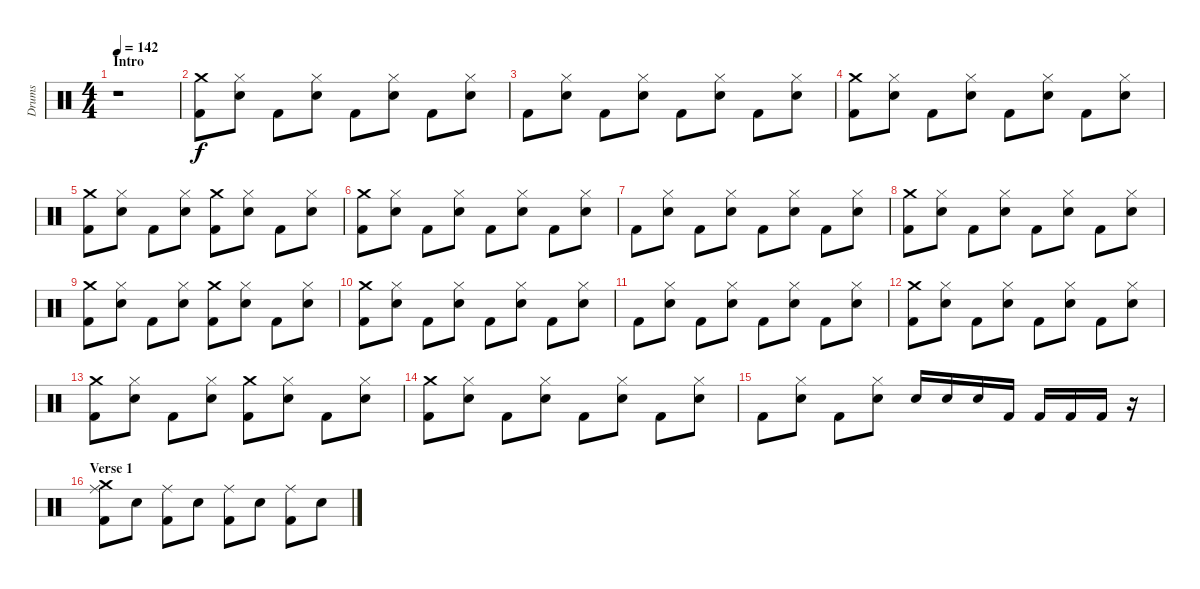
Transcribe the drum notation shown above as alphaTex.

\track ("Drums" "Drums") {instrument percussion}
\staff {score}
\articulation defaults
\ts (4 4)
\section ("" "Intro")
\tempo 142
\clef neutral
\ks c
r.1{dy f} |
("Kick (hit) 2" "Crash medium (hit)").8 ("Snare (hit) 2" "Hi-Hat (closed)").8 "Kick (hit) 2".8 ("Snare (hit) 2" "Hi-Hat (closed)").8 "Kick (hit) 2".8 ("Snare (hit) 2" "Hi-Hat (closed)").8 "Kick (hit) 2".8 ("Snare (hit) 2" "Hi-Hat (closed)").8 |
"Kick (hit) 2".8 ("Snare (hit) 2" "Hi-Hat (closed)").8 "Kick (hit) 2".8 ("Snare (hit) 2" "Hi-Hat (closed)").8 "Kick (hit) 2".8 ("Snare (hit) 2" "Hi-Hat (closed)").8 "Kick (hit) 2".8 ("Snare (hit) 2" "Hi-Hat (closed)").8 |
("Kick (hit) 2" "Crash medium (hit)").8 ("Snare (hit) 2" "Hi-Hat (closed)").8 "Kick (hit) 2".8 ("Snare (hit) 2" "Hi-Hat (closed)").8 "Kick (hit) 2".8 ("Snare (hit) 2" "Hi-Hat (closed)").8 "Kick (hit) 2".8 ("Snare (hit) 2" "Hi-Hat (closed)").8 |
("Kick (hit) 2" "Crash medium (hit)").8 ("Snare (hit) 2" "Hi-Hat (closed)").8 "Kick (hit) 2".8 ("Snare (hit) 2" "Hi-Hat (closed)").8 ("Kick (hit) 2" "Crash medium (hit)").8 ("Snare (hit) 2" "Hi-Hat (closed)").8 "Kick (hit) 2".8 ("Snare (hit) 2" "Hi-Hat (closed)").8 |
("Kick (hit) 2" "Crash medium (hit)").8 ("Snare (hit) 2" "Hi-Hat (closed)").8 "Kick (hit) 2".8 ("Snare (hit) 2" "Hi-Hat (closed)").8 "Kick (hit) 2".8 ("Snare (hit) 2" "Hi-Hat (closed)").8 "Kick (hit) 2".8 ("Snare (hit) 2" "Hi-Hat (closed)").8 |
"Kick (hit) 2".8 ("Snare (hit) 2" "Hi-Hat (closed)").8 "Kick (hit) 2".8 ("Snare (hit) 2" "Hi-Hat (closed)").8 "Kick (hit) 2".8 ("Snare (hit) 2" "Hi-Hat (closed)").8 "Kick (hit) 2".8 ("Snare (hit) 2" "Hi-Hat (closed)").8 |
("Kick (hit) 2" "Crash medium (hit)").8 ("Snare (hit) 2" "Hi-Hat (closed)").8 "Kick (hit) 2".8 ("Snare (hit) 2" "Hi-Hat (closed)").8 "Kick (hit) 2".8 ("Snare (hit) 2" "Hi-Hat (closed)").8 "Kick (hit) 2".8 ("Snare (hit) 2" "Hi-Hat (closed)").8 |
("Kick (hit) 2" "Crash medium (hit)").8 ("Snare (hit) 2" "Hi-Hat (closed)").8 "Kick (hit) 2".8 ("Snare (hit) 2" "Hi-Hat (closed)").8 ("Kick (hit) 2" "Crash medium (hit)").8 ("Snare (hit) 2" "Hi-Hat (closed)").8 "Kick (hit) 2".8 ("Snare (hit) 2" "Hi-Hat (closed)").8 |
("Kick (hit) 2" "Crash medium (hit)").8 ("Snare (hit) 2" "Hi-Hat (closed)").8 "Kick (hit) 2".8 ("Snare (hit) 2" "Hi-Hat (closed)").8 "Kick (hit) 2".8 ("Snare (hit) 2" "Hi-Hat (closed)").8 "Kick (hit) 2".8 ("Snare (hit) 2" "Hi-Hat (closed)").8 |
"Kick (hit) 2".8 ("Snare (hit) 2" "Hi-Hat (closed)").8 "Kick (hit) 2".8 ("Snare (hit) 2" "Hi-Hat (closed)").8 "Kick (hit) 2".8 ("Snare (hit) 2" "Hi-Hat (closed)").8 "Kick (hit) 2".8 ("Snare (hit) 2" "Hi-Hat (closed)").8 |
("Kick (hit) 2" "Crash medium (hit)").8 ("Snare (hit) 2" "Hi-Hat (closed)").8 "Kick (hit) 2".8 ("Snare (hit) 2" "Hi-Hat (closed)").8 "Kick (hit) 2".8 ("Snare (hit) 2" "Hi-Hat (closed)").8 "Kick (hit) 2".8 ("Snare (hit) 2" "Hi-Hat (closed)").8 |
("Kick (hit) 2" "Crash medium (hit)").8 ("Snare (hit) 2" "Hi-Hat (closed)").8 "Kick (hit) 2".8 ("Snare (hit) 2" "Hi-Hat (closed)").8 ("Kick (hit) 2" "Crash medium (hit)").8 ("Snare (hit) 2" "Hi-Hat (closed)").8 "Kick (hit) 2".8 ("Snare (hit) 2" "Hi-Hat (closed)").8 |
("Kick (hit) 2" "Crash medium (hit)").8 ("Snare (hit) 2" "Hi-Hat (closed)").8 "Kick (hit) 2".8 ("Snare (hit) 2" "Hi-Hat (closed)").8 "Kick (hit) 2".8 ("Snare (hit) 2" "Hi-Hat (closed)").8 "Kick (hit) 2".8 ("Snare (hit) 2" "Hi-Hat (closed)").8 |
"Kick (hit) 2".8 ("Snare (hit) 2" "Hi-Hat (closed)").8 "Kick (hit) 2".8 ("Snare (hit) 2" "Hi-Hat (closed)").8 "Snare (hit) 2".16 "Snare (hit) 2".16 "Snare (hit) 2".16 "Kick (hit) 2".16 "Kick (hit) 2".16 "Kick (hit) 2".16 "Kick (hit) 2".16 r.16 |
\section ("" "Verse 1")
("Kick (hit) 2" "Ride (middle)" "Crash medium (hit)").8 "Snare (hit) 2".8 ("Kick (hit) 2" "Ride (middle)").8 "Snare (hit) 2".8 ("Kick (hit) 2" "Ride (middle)").8 "Snare (hit) 2".8 ("Kick (hit) 2" "Ride (middle)").8 "Snare (hit) 2".8
